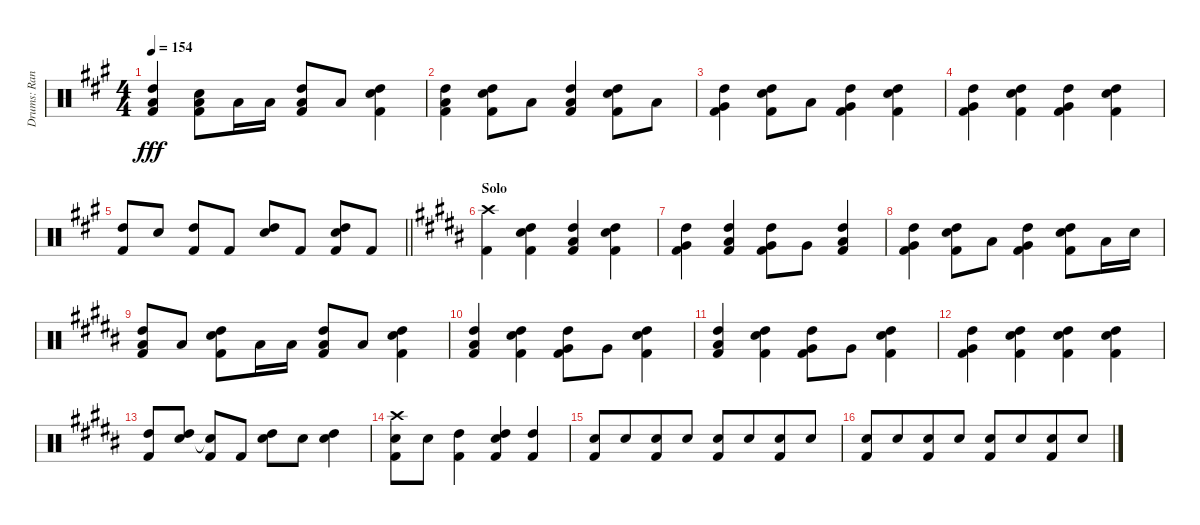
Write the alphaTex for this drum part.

\track ("Drums: Randy" "Drums: Ran") {instrument percussion}
\staff {score}
\articulation defaults
\ts (4 4)
\tempo 154
\clef neutral
\ks a
("Low Tom (hit)" "High Tom (hit)" "Kick (hit) 2").4{dy fff} ("Snare (hit) 2" "Low Tom (hit)" "Kick (hit) 2").8 "Low Tom (hit)".16 "Low Tom (hit)".16 ("Low Tom (hit)" "High Tom (hit)" "Kick (hit) 2").8 "Low Tom (hit)".8 ("Snare (hit) 2" "High Tom (hit)" "Kick (hit) 2").4 |
("High Tom (hit)" "Low Floor Tom (hit)" "Kick (hit) 2").4 ("Snare (hit) 2" "High Tom (hit)" "Kick (hit) 2").8 "Low Tom (hit)".8 ("High Tom (hit)" "Low Tom (hit)" "Kick (hit) 2").4 ("Snare (hit) 2" "High Tom (hit)" "Kick (hit) 2").8 "Low Tom (hit)".8 |
("Very Low Tom (hit)" "High Tom (hit)" "Kick (hit) 2").4 ("Snare (hit) 2" "High Tom (hit)" "Kick (hit) 2").8 "Low Tom (hit)".8 ("Very Low Tom (hit)" "High Tom (hit)" "Kick (hit) 2").4 ("Snare (hit) 2" "High Tom (hit)" "Kick (hit) 2").4 |
("Very Low Tom (hit)" "High Tom (hit)" "Kick (hit) 2").4 ("Snare (hit) 2" "High Tom (hit)" "Kick (hit) 2").4 ("Very Low Tom (hit)" "High Tom (hit)" "Kick (hit) 2").4 ("Snare (hit) 2" "High Tom (hit)" "Kick (hit) 2").4 |
\barLineRight lightlight
("High Tom (hit)" "Kick (hit) 2").8 "Snare (hit) 2".8 ("High Tom (hit)" "Kick (hit) 2").8 "Kick (hit) 2".8 ("Snare (hit) 2" "High Tom (hit)").8 "Kick (hit) 2".8 ("Snare (hit) 2" "High Tom (hit)" "Kick (hit) 2").8 "Kick (hit) 2".8 |
\section ("" "Solo")
\ks b
("Crash high (hit)" "Kick (hit) 2").4 ("Snare (hit) 2" "High Tom (hit)" "Kick (hit) 2").4 ("High Tom (hit)" "Low Tom (hit)" "Kick (hit) 2").4 ("Snare (hit) 2" "High Tom (hit)" "Kick (hit) 2").4 |
("Very Low Tom (hit)" "High Tom (hit)" "Kick (hit) 2").4 ("Low Tom (hit)" "High Tom (hit)" "Kick (hit) 2").4 ("Very Low Tom (hit)" "High Tom (hit)" "Kick (hit) 2").8 "Very Low Tom (hit)".8 ("Low Tom (hit)" "High Tom (hit)" "Kick (hit) 2").4 |
("Very Low Tom (hit)" "High Tom (hit)" "Kick (hit) 2").4 ("Snare (hit) 2" "High Tom (hit)" "Kick (hit) 2").8 "Low Tom (hit)".8 ("Very Low Tom (hit)" "High Tom (hit)" "Kick (hit) 2").4 ("Snare (hit) 2" "High Tom (hit)" "Kick (hit) 2").8 "Low Tom (hit)".16 "Electric Snare (hit)".16 |
("Low Tom (hit)" "High Tom (hit)" "Kick (hit) 2").8 "Low Tom (hit)".8 ("Snare (hit) 2" "High Tom (hit)" "Kick (hit) 2").8 "Low Tom (hit)".16 "Low Tom (hit)".16 ("Low Tom (hit)" "High Tom (hit)" "Kick (hit) 2").8 "Low Tom (hit)".8 ("Snare (hit) 2" "High Tom (hit)" "Kick (hit) 2").4 |
("Low Tom (hit)" "High Tom (hit)" "Kick (hit) 2").4 ("Snare (hit) 2" "High Tom (hit)" "Kick (hit) 2").4 ("Very Low Tom (hit)" "High Tom (hit)" "Kick (hit) 2").8 "Very Low Tom (hit)".8 ("Snare (hit) 2" "High Tom (hit)" "Kick (hit) 2").4 |
("Low Tom (hit)" "High Tom (hit)" "Kick (hit) 2").4 ("Snare (hit) 2" "High Tom (hit)" "Kick (hit) 2").4 ("Very Low Tom (hit)" "High Tom (hit)" "Kick (hit) 2").8 "Very Low Tom (hit)".8 ("Snare (hit) 2" "High Tom (hit)" "Kick (hit) 2").4 |
("Very Low Tom (hit)" "High Tom (hit)" "Kick (hit) 2").4 ("Snare (hit) 2" "High Tom (hit)" "Kick (hit) 2").4 ("Snare (hit) 2" "High Tom (hit)" "Kick (hit) 2").4 ("Snare (hit) 2" "High Tom (hit)" "Kick (hit) 2").4 |
("High Tom (hit)" "Kick (hit) 2").8 ("Snare (hit) 2" "High Tom (hit)").8 ("Snare (hit)"{t} "Kick (hit) 2").8 "Kick (hit) 2".8 ("Snare (hit) 2" "High Tom (hit)").8 "Snare (hit) 2".8 ("Snare (hit) 2" "High Tom (hit)").4 |
("Crash high (hit)" "Snare (hit) 2" "Kick (hit) 2").8 "Snare (hit) 2".8{beam merge} ("High Tom (hit)" "Kick (hit) 2").4 ("Snare (hit) 2" "High Tom (hit)" "Kick (hit) 2").4{beam merge} ("High Tom (hit)" "Kick (hit) 2").4 |
("Snare (hit) 2" "Kick (hit) 2").8 "Snare (hit) 2".8{beam merge} ("Snare (hit) 2" "Kick (hit) 2").8 "Snare (hit) 2".8 ("Snare (hit) 2" "Kick (hit) 2").8 "Snare (hit) 2".8{beam merge} ("Snare (hit) 2" "Kick (hit) 2").8 "Snare (hit) 2".8 |
("Snare (hit) 2" "Kick (hit) 2").8 "Snare (hit) 2".8{beam merge} ("Snare (hit) 2" "Kick (hit) 2").8 "Snare (hit) 2".8 ("Snare (hit) 2" "Kick (hit) 2").8 "Snare (hit) 2".8{beam merge} ("Snare (hit) 2" "Kick (hit) 2").8 "Snare (hit) 2".8
